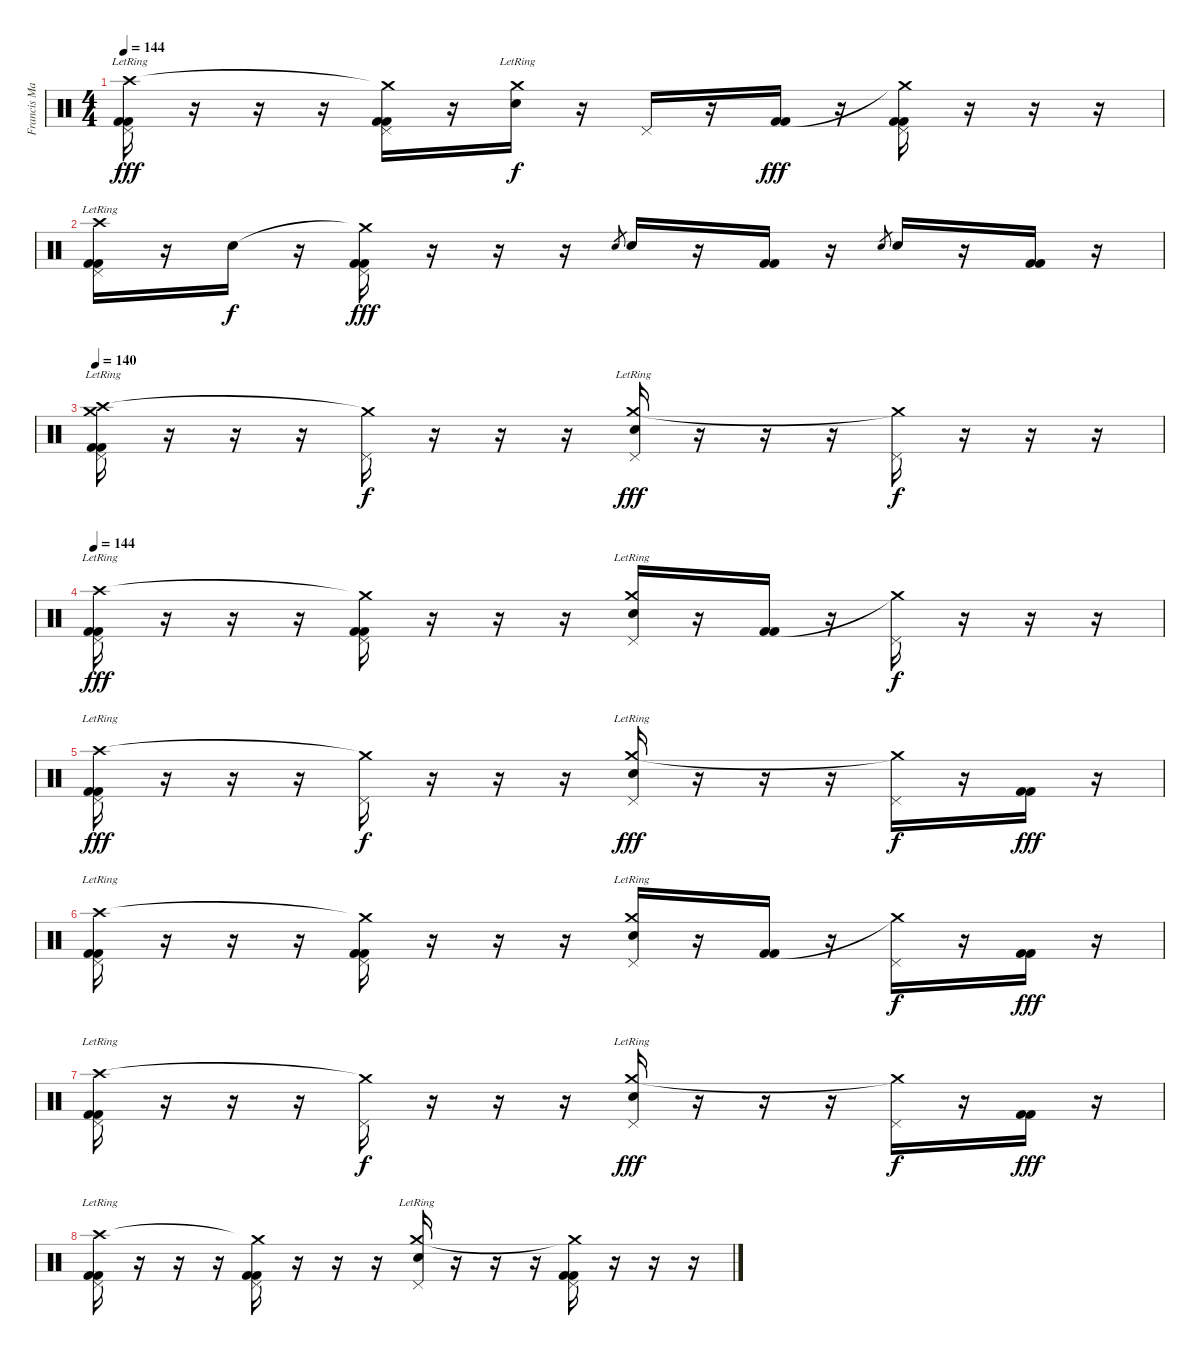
\track ("Francis Mark" "Francis Ma") {instrument percussion}
\staff {score}
\articulation defaults
\ts (4 4)
\tempo 144
\clef neutral
\ks c
("Crash high (hit)"{lr} "Pedal Hi-Hat (hit)" "Kick (hit) 2" "Kick (hit) 2").16{dy fff} r.16 r.16 r.16 ("Crash medium (hit)"{t} "Pedal Hi-Hat (hit)" "Kick (hit) 2" "Kick (hit) 2").16 r.16 ("Crash medium (hit)"{lr} "Electric Snare (hit)").16{dy f} r.16 "Pedal Hi-Hat (hit)".16 r.16 ("Kick (hit) 2" "Kick (hit) 2").16{dy fff} r.16 ("Crash medium (hit)"{t} "Pedal Hi-Hat (hit)" "Kick (hit) 2" "Kick (hit) 2").16 r.16 r.16 r.16 |
("Crash high (hit)"{lr} "Pedal Hi-Hat (hit)" "Kick (hit) 2" "Kick (hit) 2").16 r.16 "Electric Snare (hit)".16{dy f} r.16 ("Crash medium (hit)"{t} "Pedal Hi-Hat (hit)" "Kick (hit) 2" "Kick (hit) 2").16{dy fff} r.16 r.16 r.16 "Electric Snare (hit)".8{gr} "Electric Snare (hit)".16 r.16 ("Kick (hit) 2" "Kick (hit) 2").16 r.16 "Electric Snare (hit)".8{gr} "Electric Snare (hit)".16 r.16 ("Kick (hit) 2" "Kick (hit) 2").16 r.16 |
\tempo 140
("Crash high (hit)"{lr} "Crash medium (hit)"{lr} "Pedal Hi-Hat (hit)" "Kick (hit) 2" "Kick (hit) 2").16 r.16 r.16 r.16 ("Crash medium (hit)"{t} "Pedal Hi-Hat (hit)").16{dy f} r.16 r.16 r.16 ("Crash medium (hit)"{lr} "Pedal Hi-Hat (hit)" "Electric Snare (hit)").16{dy fff} r.16 r.16 r.16 ("Crash medium (hit)"{t} "Pedal Hi-Hat (hit)").16{dy f} r.16 r.16 r.16 |
\tempo 144
("Crash high (hit)"{lr} "Pedal Hi-Hat (hit)" "Kick (hit) 2" "Kick (hit) 2").16{dy fff} r.16 r.16 r.16 ("Crash medium (hit)"{t} "Pedal Hi-Hat (hit)" "Kick (hit) 2" "Kick (hit) 2").16 r.16 r.16 r.16 ("Crash medium (hit)"{lr} "Pedal Hi-Hat (hit)" "Electric Snare (hit)").16 r.16 ("Kick (hit) 2" "Kick (hit) 2").16 r.16 ("Crash medium (hit)"{t} "Pedal Hi-Hat (hit)").16{dy f} r.16 r.16 r.16 |
("Crash high (hit)"{lr} "Pedal Hi-Hat (hit)" "Kick (hit) 2" "Kick (hit) 2").16{dy fff} r.16 r.16 r.16 ("Crash medium (hit)"{t} "Pedal Hi-Hat (hit)").16{dy f} r.16 r.16 r.16 ("Crash medium (hit)"{lr} "Pedal Hi-Hat (hit)" "Electric Snare (hit)").16{dy fff} r.16 r.16 r.16 ("Crash medium (hit)"{t} "Pedal Hi-Hat (hit)").16{dy f} r.16 ("Kick (hit) 2" "Kick (hit) 2").16{dy fff} r.16 |
("Crash high (hit)"{lr} "Pedal Hi-Hat (hit)" "Kick (hit) 2" "Kick (hit) 2").16 r.16 r.16 r.16 ("Crash medium (hit)"{t} "Pedal Hi-Hat (hit)" "Kick (hit) 2" "Kick (hit) 2").16 r.16 r.16 r.16 ("Crash medium (hit)"{lr} "Pedal Hi-Hat (hit)" "Electric Snare (hit)").16 r.16 ("Kick (hit) 2" "Kick (hit) 2").16 r.16 ("Crash medium (hit)"{t} "Pedal Hi-Hat (hit)").16{dy f} r.16 ("Kick (hit) 2" "Kick (hit) 2").16{dy fff} r.16 |
("Crash high (hit)"{lr} "Pedal Hi-Hat (hit)" "Kick (hit) 2" "Kick (hit) 2").16 r.16 r.16 r.16 ("Crash medium (hit)"{t} "Pedal Hi-Hat (hit)").16{dy f} r.16 r.16 r.16 ("Crash medium (hit)"{lr} "Pedal Hi-Hat (hit)" "Electric Snare (hit)").16{dy fff} r.16 r.16 r.16 ("Crash medium (hit)"{t} "Pedal Hi-Hat (hit)").16{dy f} r.16 ("Kick (hit) 2" "Kick (hit) 2").16{dy fff} r.16 |
("Crash high (hit)"{lr} "Pedal Hi-Hat (hit)" "Kick (hit) 2" "Kick (hit) 2").16 r.16 r.16 r.16 ("Crash medium (hit)"{t} "Pedal Hi-Hat (hit)" "Kick (hit) 2" "Kick (hit) 2").16 r.16 r.16 r.16 ("Crash medium (hit)"{lr} "Pedal Hi-Hat (hit)" "Electric Snare (hit)").16 r.16 r.16 r.16 ("Crash medium (hit)"{t} "Pedal Hi-Hat (hit)" "Kick (hit) 2" "Kick (hit) 2").16 r.16 r.16 r.16
